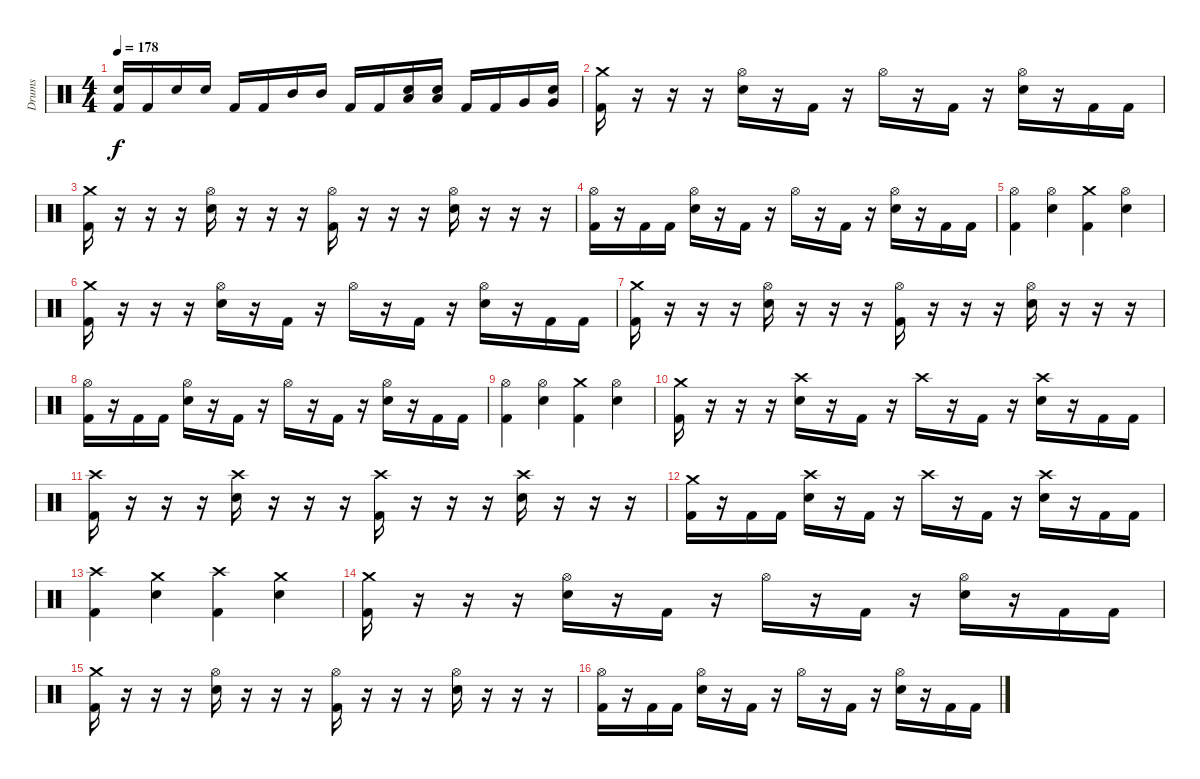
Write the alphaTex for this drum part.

\track ("Drums" "Drums") {instrument percussion}
\staff {score}
\articulation defaults
\ts (4 4)
\tempo 178
\clef neutral
\ks c
("Electric Snare (hit)" "Kick (hit) 2").16{dy f} "Kick (hit) 2".16 "Electric Snare (hit)".16 "Electric Snare (hit)".16 "Kick (hit) 2".16 "Kick (hit) 2".16 "Mid Tom (hit)".16 "Mid Tom (hit)".16 "Kick (hit) 2".16 "Kick (hit) 2".16 ("Electric Snare (hit)" "Low Tom (hit)").16 ("Electric Snare (hit)" "Low Tom (hit)").16 "Kick (hit) 2".16 "Kick (hit) 2".16 "Very Low Tom (hit)".16 ("Electric Snare (hit)" "Very Low Tom (hit)").16 |
("Crash medium (hit)" "Kick (hit) 2").16 r.16 r.16 r.16 ("Hi-Hat (open)" "Electric Snare (hit)").16 r.16 "Kick (hit) 2".16 r.16 "Hi-Hat (open)".16 r.16 "Kick (hit) 2".16 r.16 ("Hi-Hat (open)" "Electric Snare (hit)").16 r.16 "Kick (hit) 2".16 "Kick (hit) 2".16 |
("Crash medium (hit)" "Kick (hit) 2").16 r.16 r.16 r.16 ("Hi-Hat (open)" "Electric Snare (hit)").16 r.16 r.16 r.16 ("Hi-Hat (open)" "Kick (hit) 2").16 r.16 r.16 r.16 ("Hi-Hat (open)" "Electric Snare (hit)").16 r.16 r.16 r.16 |
("Hi-Hat (open)" "Kick (hit) 2").16 r.16 "Kick (hit) 2".16 "Kick (hit) 2".16 ("Hi-Hat (open)" "Electric Snare (hit)").16 r.16 "Kick (hit) 2".16 r.16 "Hi-Hat (open)".16 r.16 "Kick (hit) 2".16 r.16 ("Hi-Hat (open)" "Electric Snare (hit)").16 r.16 "Kick (hit) 2".16 "Kick (hit) 2".16 |
("Hi-Hat (open)" "Kick (hit) 2").4 ("Hi-Hat (open)" "Electric Snare (hit)").4 ("Crash medium (hit)" "Kick (hit) 2").4 ("Hi-Hat (open)" "Electric Snare (hit)").4 |
("Crash medium (hit)" "Kick (hit) 2").16 r.16 r.16 r.16 ("Hi-Hat (open)" "Electric Snare (hit)").16 r.16 "Kick (hit) 2".16 r.16 "Hi-Hat (open)".16 r.16 "Kick (hit) 2".16 r.16 ("Hi-Hat (open)" "Electric Snare (hit)").16 r.16 "Kick (hit) 2".16 "Kick (hit) 2".16 |
("Crash medium (hit)" "Kick (hit) 2").16 r.16 r.16 r.16 ("Hi-Hat (open)" "Electric Snare (hit)").16 r.16 r.16 r.16 ("Hi-Hat (open)" "Kick (hit) 2").16 r.16 r.16 r.16 ("Hi-Hat (open)" "Electric Snare (hit)").16 r.16 r.16 r.16 |
("Hi-Hat (open)" "Kick (hit) 2").16 r.16 "Kick (hit) 2".16 "Kick (hit) 2".16 ("Hi-Hat (open)" "Electric Snare (hit)").16 r.16 "Kick (hit) 2".16 r.16 "Hi-Hat (open)".16 r.16 "Kick (hit) 2".16 r.16 ("Hi-Hat (open)" "Electric Snare (hit)").16 r.16 "Kick (hit) 2".16 "Kick (hit) 2".16 |
("Hi-Hat (open)" "Kick (hit) 2").4 ("Hi-Hat (open)" "Electric Snare (hit)").4 ("Crash medium (hit)" "Kick (hit) 2").4 ("Hi-Hat (open)" "Electric Snare (hit)").4 |
("Crash medium (hit)" "Kick (hit) 2").16 r.16 r.16 r.16 ("Crash high (hit)" "Electric Snare (hit)").16 r.16 "Kick (hit) 2".16 r.16 "Crash high (hit)".16 r.16 "Kick (hit) 2".16 r.16 ("Crash high (hit)" "Electric Snare (hit)").16 r.16 "Kick (hit) 2".16 "Kick (hit) 2".16 |
("Crash high (hit)" "Kick (hit) 2").16 r.16 r.16 r.16 ("Crash high (hit)" "Electric Snare (hit)").16 r.16 r.16 r.16 ("Crash high (hit)" "Kick (hit) 2").16 r.16 r.16 r.16 ("Crash high (hit)" "Electric Snare (hit)").16 r.16 r.16 r.16 |
("Crash medium (hit)" "Kick (hit) 2").16 r.16 "Kick (hit) 2".16 "Kick (hit) 2".16 ("Crash high (hit)" "Electric Snare (hit)").16 r.16 "Kick (hit) 2".16 r.16 "Crash high (hit)".16 r.16 "Kick (hit) 2".16 r.16 ("Crash high (hit)" "Electric Snare (hit)").16 r.16 "Kick (hit) 2".16 "Kick (hit) 2".16 |
("Crash high (hit)" "Kick (hit) 2").4 ("Crash medium (hit)" "Electric Snare (hit)").4 ("Crash high (hit)" "Kick (hit) 2").4 ("Crash medium (hit)" "Electric Snare (hit)").4 |
("Crash medium (hit)" "Kick (hit) 2").16 r.16 r.16 r.16 ("Hi-Hat (open)" "Electric Snare (hit)").16 r.16 "Kick (hit) 2".16 r.16 "Hi-Hat (open)".16 r.16 "Kick (hit) 2".16 r.16 ("Hi-Hat (open)" "Electric Snare (hit)").16 r.16 "Kick (hit) 2".16 "Kick (hit) 2".16 |
("Crash medium (hit)" "Kick (hit) 2").16 r.16 r.16 r.16 ("Hi-Hat (open)" "Electric Snare (hit)").16 r.16 r.16 r.16 ("Hi-Hat (open)" "Kick (hit) 2").16 r.16 r.16 r.16 ("Hi-Hat (open)" "Electric Snare (hit)").16 r.16 r.16 r.16 |
("Hi-Hat (open)" "Kick (hit) 2").16 r.16 "Kick (hit) 2".16 "Kick (hit) 2".16 ("Hi-Hat (open)" "Electric Snare (hit)").16 r.16 "Kick (hit) 2".16 r.16 "Hi-Hat (open)".16 r.16 "Kick (hit) 2".16 r.16 ("Hi-Hat (open)" "Electric Snare (hit)").16 r.16 "Kick (hit) 2".16 "Kick (hit) 2".16
